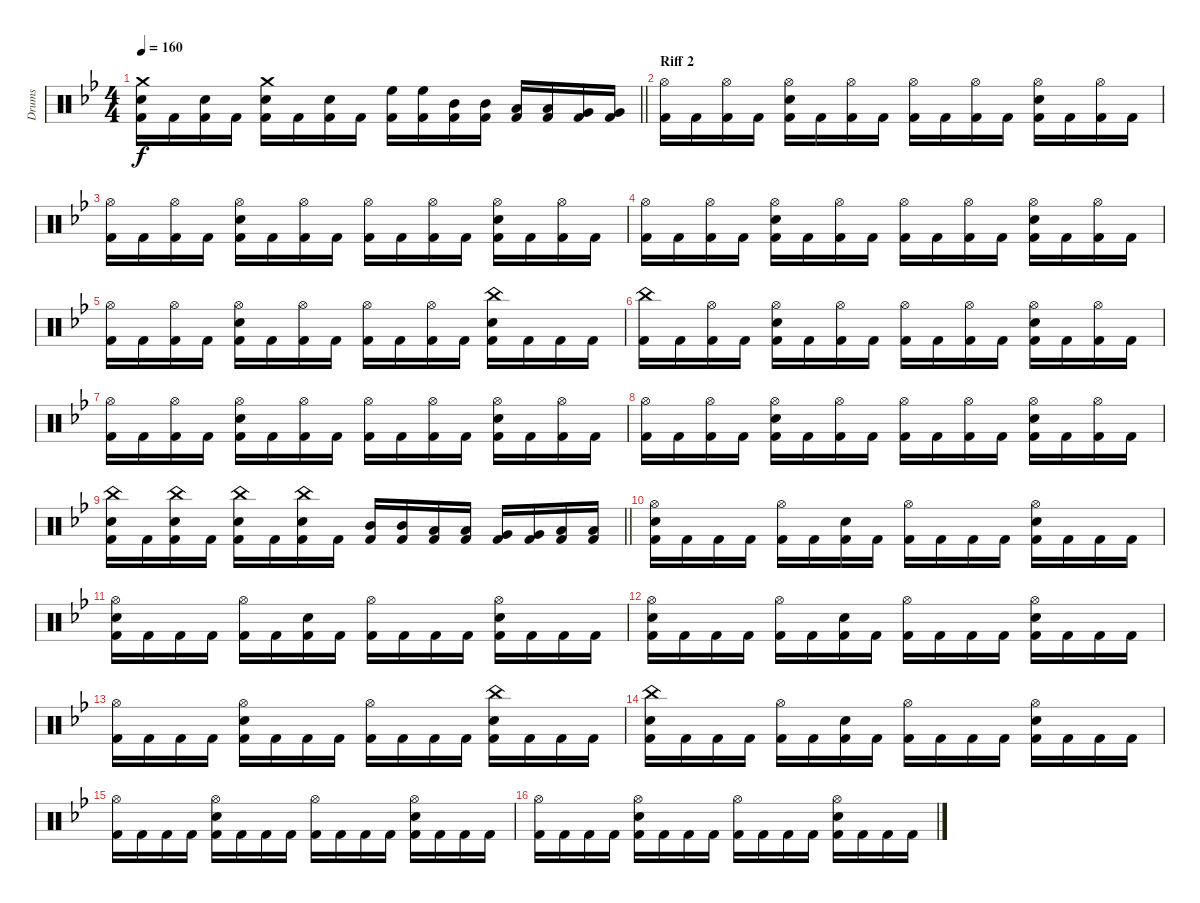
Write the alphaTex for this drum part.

\track ("Drums" "Drums") {instrument percussion}
\staff {score}
\articulation defaults
\ts (4 4)
\tempo 160
\clef neutral
\barLineRight lightlight
\ks bb
("Crash medium (hit)" "Electric Snare (hit)" "Kick (hit) 2").16{dy f} "Kick (hit) 2".16 ("Electric Snare (hit)" "Kick (hit) 2").16 "Kick (hit) 2".16 ("Crash medium (hit)" "Electric Snare (hit)" "Kick (hit) 2").16 "Kick (hit) 2".16 ("Electric Snare (hit)" "Kick (hit) 2").16 "Kick (hit) 2".16 ("High Floor Tom (hit)" "Kick (hit) 2").16 ("High Floor Tom (hit)" "Kick (hit) 2").16 ("Mid Tom (hit)" "Kick (hit) 2").16 ("Mid Tom (hit)" "Kick (hit) 2").16 ("Low Tom (hit)" "Kick (hit) 2").16 ("Low Tom (hit)" "Kick (hit) 2").16 ("Very Low Tom (hit)" "Kick (hit) 2").16 ("Very Low Tom (hit)" "Kick (hit) 2").16 |
\section ("" "Riff 2")
("Hi-Hat (open)" "Kick (hit) 2").16 "Kick (hit) 2".16 ("Hi-Hat (open)" "Kick (hit) 2").16 "Kick (hit) 2".16 ("Hi-Hat (open)" "Electric Snare (hit)" "Kick (hit) 2").16 "Kick (hit) 2".16 ("Hi-Hat (open)" "Kick (hit) 2").16 "Kick (hit) 2".16 ("Hi-Hat (open)" "Kick (hit) 2").16 "Kick (hit) 2".16 ("Hi-Hat (open)" "Kick (hit) 2").16 "Kick (hit) 2".16 ("Hi-Hat (open)" "Electric Snare (hit)" "Kick (hit) 2").16 "Kick (hit) 2".16 ("Hi-Hat (open)" "Kick (hit) 2").16 "Kick (hit) 2".16 |
("Hi-Hat (open)" "Kick (hit) 2").16 "Kick (hit) 2".16 ("Hi-Hat (open)" "Kick (hit) 2").16 "Kick (hit) 2".16 ("Hi-Hat (open)" "Electric Snare (hit)" "Kick (hit) 2").16 "Kick (hit) 2".16 ("Hi-Hat (open)" "Kick (hit) 2").16 "Kick (hit) 2".16 ("Hi-Hat (open)" "Kick (hit) 2").16 "Kick (hit) 2".16 ("Hi-Hat (open)" "Kick (hit) 2").16 "Kick (hit) 2".16 ("Hi-Hat (open)" "Electric Snare (hit)" "Kick (hit) 2").16 "Kick (hit) 2".16 ("Hi-Hat (open)" "Kick (hit) 2").16 "Kick (hit) 2".16 |
("Hi-Hat (open)" "Kick (hit) 2").16 "Kick (hit) 2".16 ("Hi-Hat (open)" "Kick (hit) 2").16 "Kick (hit) 2".16 ("Hi-Hat (open)" "Electric Snare (hit)" "Kick (hit) 2").16 "Kick (hit) 2".16 ("Hi-Hat (open)" "Kick (hit) 2").16 "Kick (hit) 2".16 ("Hi-Hat (open)" "Kick (hit) 2").16 "Kick (hit) 2".16 ("Hi-Hat (open)" "Kick (hit) 2").16 "Kick (hit) 2".16 ("Hi-Hat (open)" "Electric Snare (hit)" "Kick (hit) 2").16 "Kick (hit) 2".16 ("Hi-Hat (open)" "Kick (hit) 2").16 "Kick (hit) 2".16 |
("Hi-Hat (open)" "Kick (hit) 2").16 "Kick (hit) 2".16 ("Hi-Hat (open)" "Kick (hit) 2").16 "Kick (hit) 2".16 ("Hi-Hat (open)" "Electric Snare (hit)" "Kick (hit) 2").16 "Kick (hit) 2".16 ("Hi-Hat (open)" "Kick (hit) 2").16 "Kick (hit) 2".16 ("Hi-Hat (open)" "Kick (hit) 2").16 "Kick (hit) 2".16 ("Hi-Hat (open)" "Kick (hit) 2").16 "Kick (hit) 2".16 ("China (hit)" "Electric Snare (hit)" "Kick (hit) 2").16 "Kick (hit) 2".16 "Kick (hit) 2".16 "Kick (hit) 2".16 |
("China (hit)" "Kick (hit) 2").16 "Kick (hit) 2".16 ("Hi-Hat (open)" "Kick (hit) 2").16 "Kick (hit) 2".16 ("Hi-Hat (open)" "Electric Snare (hit)" "Kick (hit) 2").16 "Kick (hit) 2".16 ("Hi-Hat (open)" "Kick (hit) 2").16 "Kick (hit) 2".16 ("Hi-Hat (open)" "Kick (hit) 2").16 "Kick (hit) 2".16 ("Hi-Hat (open)" "Kick (hit) 2").16 "Kick (hit) 2".16 ("Hi-Hat (open)" "Electric Snare (hit)" "Kick (hit) 2").16 "Kick (hit) 2".16 ("Hi-Hat (open)" "Kick (hit) 2").16 "Kick (hit) 2".16 |
("Hi-Hat (open)" "Kick (hit) 2").16 "Kick (hit) 2".16 ("Hi-Hat (open)" "Kick (hit) 2").16 "Kick (hit) 2".16 ("Hi-Hat (open)" "Electric Snare (hit)" "Kick (hit) 2").16 "Kick (hit) 2".16 ("Hi-Hat (open)" "Kick (hit) 2").16 "Kick (hit) 2".16 ("Hi-Hat (open)" "Kick (hit) 2").16 "Kick (hit) 2".16 ("Hi-Hat (open)" "Kick (hit) 2").16 "Kick (hit) 2".16 ("Hi-Hat (open)" "Electric Snare (hit)" "Kick (hit) 2").16 "Kick (hit) 2".16 ("Hi-Hat (open)" "Kick (hit) 2").16 "Kick (hit) 2".16 |
("Hi-Hat (open)" "Kick (hit) 2").16 "Kick (hit) 2".16 ("Hi-Hat (open)" "Kick (hit) 2").16 "Kick (hit) 2".16 ("Hi-Hat (open)" "Electric Snare (hit)" "Kick (hit) 2").16 "Kick (hit) 2".16 ("Hi-Hat (open)" "Kick (hit) 2").16 "Kick (hit) 2".16 ("Hi-Hat (open)" "Kick (hit) 2").16 "Kick (hit) 2".16 ("Hi-Hat (open)" "Kick (hit) 2").16 "Kick (hit) 2".16 ("Hi-Hat (open)" "Electric Snare (hit)" "Kick (hit) 2").16 "Kick (hit) 2".16 ("Hi-Hat (open)" "Kick (hit) 2").16 "Kick (hit) 2".16 |
\barLineRight lightlight
("China (hit)" "Electric Snare (hit)" "Kick (hit) 2").16 "Kick (hit) 2".16 ("China (hit)" "Electric Snare (hit)" "Kick (hit) 2").16 "Kick (hit) 2".16 ("China (hit)" "Electric Snare (hit)" "Kick (hit) 2").16 "Kick (hit) 2".16 ("China (hit)" "Electric Snare (hit)" "Kick (hit) 2").16 "Kick (hit) 2".16 ("Mid Tom (hit)" "Kick (hit) 2").16 ("Mid Tom (hit)" "Kick (hit) 2").16 ("Low Tom (hit)" "Kick (hit) 2").16 ("Low Tom (hit)" "Kick (hit) 2").16 ("Very Low Tom (hit)" "Kick (hit) 2").16 ("Very Low Tom (hit)" "Kick (hit) 2").16 ("Low Floor Tom (hit)" "Kick (hit) 2").16 ("Low Floor Tom (hit)" "Kick (hit) 2").16 |
("Hi-Hat (open)" "Electric Snare (hit)" "Kick (hit) 2").16 "Kick (hit) 2".16 "Kick (hit) 2".16 "Kick (hit) 2".16 ("Hi-Hat (open)" "Kick (hit) 2").16 "Kick (hit) 2".16 ("Electric Snare (hit)" "Kick (hit) 2").16 "Kick (hit) 2".16 ("Hi-Hat (open)" "Kick (hit) 2").16 "Kick (hit) 2".16 "Kick (hit) 2".16 "Kick (hit) 2".16 ("Hi-Hat (open)" "Electric Snare (hit)" "Kick (hit) 2").16 "Kick (hit) 2".16 "Kick (hit) 2".16 "Kick (hit) 2".16 |
("Hi-Hat (open)" "Electric Snare (hit)" "Kick (hit) 2").16 "Kick (hit) 2".16 "Kick (hit) 2".16 "Kick (hit) 2".16 ("Hi-Hat (open)" "Kick (hit) 2").16 "Kick (hit) 2".16 ("Electric Snare (hit)" "Kick (hit) 2").16 "Kick (hit) 2".16 ("Hi-Hat (open)" "Kick (hit) 2").16 "Kick (hit) 2".16 "Kick (hit) 2".16 "Kick (hit) 2".16 ("Hi-Hat (open)" "Electric Snare (hit)" "Kick (hit) 2").16 "Kick (hit) 2".16 "Kick (hit) 2".16 "Kick (hit) 2".16 |
("Hi-Hat (open)" "Electric Snare (hit)" "Kick (hit) 2").16 "Kick (hit) 2".16 "Kick (hit) 2".16 "Kick (hit) 2".16 ("Hi-Hat (open)" "Kick (hit) 2").16 "Kick (hit) 2".16 ("Electric Snare (hit)" "Kick (hit) 2").16 "Kick (hit) 2".16 ("Hi-Hat (open)" "Kick (hit) 2").16 "Kick (hit) 2".16 "Kick (hit) 2".16 "Kick (hit) 2".16 ("Hi-Hat (open)" "Electric Snare (hit)" "Kick (hit) 2").16 "Kick (hit) 2".16 "Kick (hit) 2".16 "Kick (hit) 2".16 |
("Hi-Hat (open)" "Kick (hit) 2").16 "Kick (hit) 2".16 "Kick (hit) 2".16 "Kick (hit) 2".16 ("Hi-Hat (open)" "Electric Snare (hit)" "Kick (hit) 2").16 "Kick (hit) 2".16 "Kick (hit) 2".16 "Kick (hit) 2".16 ("Hi-Hat (open)" "Kick (hit) 2").16 "Kick (hit) 2".16 "Kick (hit) 2".16 "Kick (hit) 2".16 ("China (hit)" "Electric Snare (hit)" "Kick (hit) 2").16 "Kick (hit) 2".16 "Kick (hit) 2".16 "Kick (hit) 2".16 |
("China (hit)" "Electric Snare (hit)" "Kick (hit) 2").16 "Kick (hit) 2".16 "Kick (hit) 2".16 "Kick (hit) 2".16 ("Hi-Hat (open)" "Kick (hit) 2").16 "Kick (hit) 2".16 ("Electric Snare (hit)" "Kick (hit) 2").16 "Kick (hit) 2".16 ("Hi-Hat (open)" "Kick (hit) 2").16 "Kick (hit) 2".16 "Kick (hit) 2".16 "Kick (hit) 2".16 ("Hi-Hat (open)" "Electric Snare (hit)" "Kick (hit) 2").16 "Kick (hit) 2".16 "Kick (hit) 2".16 "Kick (hit) 2".16 |
("Hi-Hat (open)" "Kick (hit) 2").16 "Kick (hit) 2".16 "Kick (hit) 2".16 "Kick (hit) 2".16 ("Hi-Hat (open)" "Electric Snare (hit)" "Kick (hit) 2").16 "Kick (hit) 2".16 "Kick (hit) 2".16 "Kick (hit) 2".16 ("Hi-Hat (open)" "Kick (hit) 2").16 "Kick (hit) 2".16 "Kick (hit) 2".16 "Kick (hit) 2".16 ("Hi-Hat (open)" "Electric Snare (hit)" "Kick (hit) 2").16 "Kick (hit) 2".16 "Kick (hit) 2".16 "Kick (hit) 2".16 |
("Hi-Hat (open)" "Kick (hit) 2").16 "Kick (hit) 2".16 "Kick (hit) 2".16 "Kick (hit) 2".16 ("Hi-Hat (open)" "Electric Snare (hit)" "Kick (hit) 2").16 "Kick (hit) 2".16 "Kick (hit) 2".16 "Kick (hit) 2".16 ("Hi-Hat (open)" "Kick (hit) 2").16 "Kick (hit) 2".16 "Kick (hit) 2".16 "Kick (hit) 2".16 ("Hi-Hat (open)" "Electric Snare (hit)" "Kick (hit) 2").16 "Kick (hit) 2".16 "Kick (hit) 2".16 "Kick (hit) 2".16
